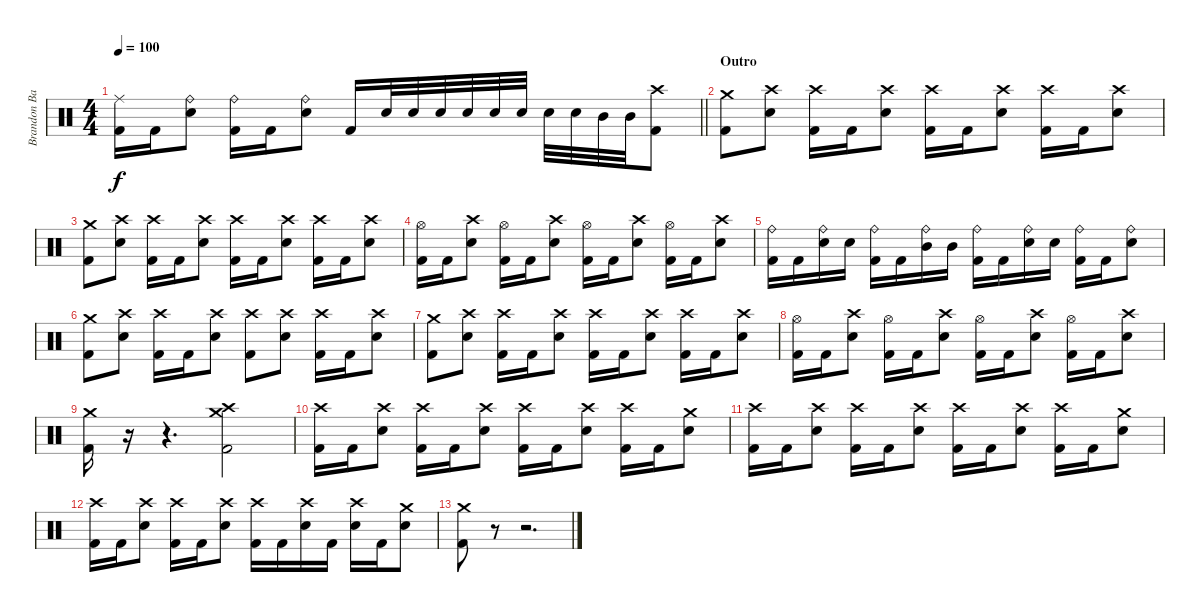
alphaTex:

\track ("Brandon Barnes" "Brandon Ba") {instrument percussion}
\staff {score}
\articulation defaults
\ts (4 4)
\tempo 100
\clef neutral
\barLineRight lightlight
\ks c
("Ride (middle)" "Kick (hit) 2").16{dy f} "Kick (hit) 2".16 ("Ride (bell)" "Electric Snare (hit)").8 ("Ride (bell)" "Kick (hit) 2").16 "Kick (hit) 2".16 ("Ride (bell)" "Electric Snare (hit)").8 "Kick (hit) 2".16 "Electric Snare (hit)".32 "Electric Snare (hit)".32 "Electric Snare (hit)".32 "Electric Snare (hit)".32 "Electric Snare (hit)".32 "Electric Snare (hit)".32 "Electric Snare (hit)".32 "Electric Snare (hit)".32 "Mid Tom (hit)".32 "Mid Tom (hit)".32 ("Crash high (hit)" "Kick (hit) 2").8 |
\section ("" "Outro")
("Crash medium (hit)" "Kick (hit) 2").8 ("Crash high (hit)" "Electric Snare (hit)").8 ("Crash high (hit)" "Kick (hit) 2").16 "Kick (hit) 2".16 ("Crash high (hit)" "Electric Snare (hit)").8 ("Crash high (hit)" "Kick (hit) 2").16 "Kick (hit) 2".16 ("Crash high (hit)" "Electric Snare (hit)").8 ("Crash high (hit)" "Kick (hit) 2").16 "Kick (hit) 2".16 ("Crash high (hit)" "Electric Snare (hit)").8 |
("Crash medium (hit)" "Kick (hit) 2").8 ("Crash high (hit)" "Electric Snare (hit)").8 ("Crash high (hit)" "Kick (hit) 2").16 "Kick (hit) 2".16 ("Crash high (hit)" "Electric Snare (hit)").8 ("Crash high (hit)" "Kick (hit) 2").16 "Kick (hit) 2".16 ("Crash high (hit)" "Electric Snare (hit)").8 ("Crash high (hit)" "Kick (hit) 2").16 "Kick (hit) 2".16 ("Crash high (hit)" "Electric Snare (hit)").8 |
("Hi-Hat (open)" "Kick (hit) 2").16 "Kick (hit) 2".16 ("Crash high (hit)" "Electric Snare (hit)").8 ("Hi-Hat (open)" "Kick (hit) 2").16 "Kick (hit) 2".16 ("Crash high (hit)" "Electric Snare (hit)").8 ("Hi-Hat (open)" "Kick (hit) 2").16 "Kick (hit) 2".16 ("Crash high (hit)" "Electric Snare (hit)").8 ("Hi-Hat (open)" "Kick (hit) 2").16 "Kick (hit) 2".16 ("Crash high (hit)" "Electric Snare (hit)").8 |
("Ride (bell)" "Kick (hit) 2").16 "Kick (hit) 2".16 ("Ride (bell)" "Electric Snare (hit)").16 "Electric Snare (hit)".16 ("Ride (bell)" "Kick (hit) 2").16 "Kick (hit) 2".16 ("Ride (bell)" "Mid Tom (hit)").16 "Mid Tom (hit)".16 ("Ride (bell)" "Kick (hit) 2").16 "Kick (hit) 2".16 ("Ride (bell)" "Electric Snare (hit)").16 "Electric Snare (hit)".16 ("Ride (bell)" "Kick (hit) 2").16 "Kick (hit) 2".16 ("Ride (bell)" "Electric Snare (hit)").8 |
("Crash medium (hit)" "Kick (hit) 2").8 ("Crash high (hit)" "Electric Snare (hit)").8 ("Crash high (hit)" "Kick (hit) 2").16 "Kick (hit) 2".16 ("Crash high (hit)" "Electric Snare (hit)").8 ("Crash high (hit)" "Kick (hit) 2").8 ("Crash high (hit)" "Electric Snare (hit)").8 ("Crash high (hit)" "Kick (hit) 2").16 "Kick (hit) 2".16 ("Crash high (hit)" "Electric Snare (hit)").8 |
("Crash medium (hit)" "Kick (hit) 2").8 ("Crash high (hit)" "Electric Snare (hit)").8 ("Crash high (hit)" "Kick (hit) 2").16 "Kick (hit) 2".16 ("Crash high (hit)" "Electric Snare (hit)").8 ("Crash high (hit)" "Kick (hit) 2").16 "Kick (hit) 2".16 ("Crash high (hit)" "Electric Snare (hit)").8 ("Crash high (hit)" "Kick (hit) 2").16 "Kick (hit) 2".16 ("Crash high (hit)" "Electric Snare (hit)").8 |
("Hi-Hat (open)" "Kick (hit) 2").16 "Kick (hit) 2".16 ("Crash high (hit)" "Electric Snare (hit)").8 ("Hi-Hat (open)" "Kick (hit) 2").16 "Kick (hit) 2".16 ("Crash high (hit)" "Electric Snare (hit)").8 ("Hi-Hat (open)" "Kick (hit) 2").16 "Kick (hit) 2".16 ("Crash high (hit)" "Electric Snare (hit)").8 ("Hi-Hat (open)" "Kick (hit) 2").16 "Kick (hit) 2".16 ("Crash high (hit)" "Electric Snare (hit)").8 |
("Crash medium (hit)" "Kick (hit) 2").16 r.16 r.4{d} ("Crash high (hit)" "Crash medium (hit)" "Kick (hit) 2").2 |
("Crash high (hit)" "Kick (hit) 2").16 "Kick (hit) 2".16 ("Crash high (hit)" "Electric Snare (hit)").8 ("Crash high (hit)" "Kick (hit) 2").16 "Kick (hit) 2".16 ("Crash high (hit)" "Electric Snare (hit)").8 ("Crash high (hit)" "Kick (hit) 2").16 "Kick (hit) 2".16 ("Crash high (hit)" "Electric Snare (hit)").8 ("Crash high (hit)" "Kick (hit) 2").16 "Kick (hit) 2".16 ("Crash medium (hit)" "Electric Snare (hit)").8 |
("Crash high (hit)" "Kick (hit) 2").16 "Kick (hit) 2".16 ("Crash high (hit)" "Electric Snare (hit)").8 ("Crash high (hit)" "Kick (hit) 2").16 "Kick (hit) 2".16 ("Crash high (hit)" "Electric Snare (hit)").8 ("Crash high (hit)" "Kick (hit) 2").16 "Kick (hit) 2".16 ("Crash high (hit)" "Electric Snare (hit)").8 ("Crash high (hit)" "Kick (hit) 2").16 "Kick (hit) 2".16 ("Crash medium (hit)" "Electric Snare (hit)").8 |
("Crash high (hit)" "Kick (hit) 2").16 "Kick (hit) 2".16 ("Crash high (hit)" "Electric Snare (hit)").8 ("Crash high (hit)" "Kick (hit) 2").16 "Kick (hit) 2".16 ("Crash high (hit)" "Electric Snare (hit)").8 ("Crash high (hit)" "Kick (hit) 2").16 "Kick (hit) 2".16 ("Crash high (hit)" "Electric Snare (hit)").16 "Kick (hit) 2".16 ("Crash high (hit)" "Electric Snare (hit)").16 "Kick (hit) 2".16 ("Crash medium (hit)" "Electric Snare (hit)").8 |
("Crash medium (hit)" "Kick (hit) 2").8 r.8 r.2{d}
